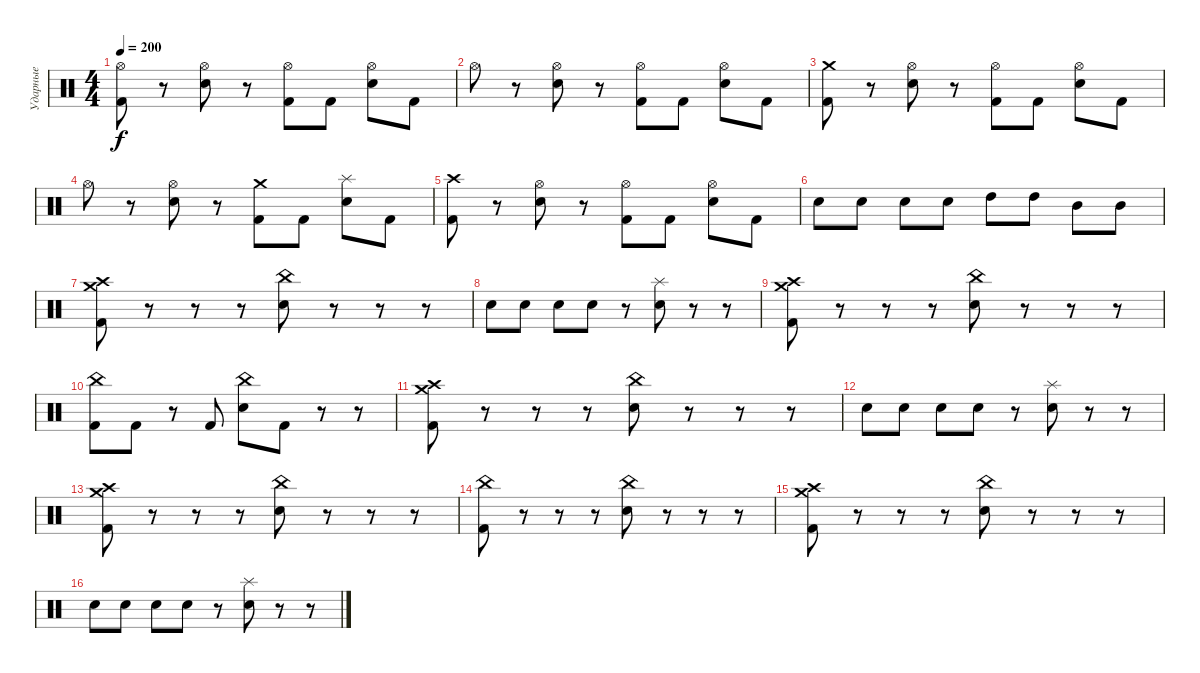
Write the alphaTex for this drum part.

\track ("Ударные" "Ударные") {instrument percussion}
\staff {score}
\articulation defaults
\ts (4 4)
\tempo 200
\clef neutral
\ks c
("Kick (hit) 2" "Hi-Hat (open)").8{dy f} r.8 ("Electric Snare (hit)" "Hi-Hat (open)").8 r.8 ("Kick (hit) 2" "Hi-Hat (open)").8 "Kick (hit) 2".8 ("Electric Snare (hit)" "Hi-Hat (open)").8 "Kick (hit) 2".8 |
"Hi-Hat (open)".8 r.8 ("Electric Snare (hit)" "Hi-Hat (open)").8 r.8 ("Kick (hit) 2" "Hi-Hat (open)").8 "Kick (hit) 2".8 ("Electric Snare (hit)" "Hi-Hat (open)").8 "Kick (hit) 2".8 |
("Kick (hit) 2" "Crash medium (hit)").8 r.8 ("Electric Snare (hit)" "Hi-Hat (open)").8 r.8 ("Kick (hit) 2" "Hi-Hat (open)").8 "Kick (hit) 2".8 ("Electric Snare (hit)" "Hi-Hat (open)").8 "Kick (hit) 2".8 |
"Hi-Hat (open)".8 r.8 ("Electric Snare (hit)" "Hi-Hat (open)").8 r.8 ("Kick (hit) 2" "Crash medium (hit)").8 "Kick (hit) 2".8 ("Electric Snare (hit)" "Splash (hit)").8 "Kick (hit) 2".8 |
("Kick (hit) 2" "Crash high (hit)").8 r.8 ("Electric Snare (hit)" "Hi-Hat (open)").8 r.8 ("Kick (hit) 2" "Hi-Hat (open)").8 "Kick (hit) 2".8 ("Electric Snare (hit)" "Hi-Hat (open)").8 "Kick (hit) 2".8 |
"Electric Snare (hit)".8 "Electric Snare (hit)".8 "Electric Snare (hit)".8 "Electric Snare (hit)".8 "High Tom (hit)".8 "High Tom (hit)".8 "Mid Tom (hit)".8 "Mid Tom (hit)".8 |
("Kick (hit) 2" "Crash high (hit)" "Crash medium (hit)").8 r.8 r.8 r.8 ("Electric Snare (hit)" "China (hit)").8 r.8 r.8 r.8 |
"Electric Snare (hit)".8 "Electric Snare (hit)".8 "Electric Snare (hit)".8 "Electric Snare (hit)".8 r.8 ("Electric Snare (hit)" "Splash (hit)").8 r.8 r.8 |
("Kick (hit) 2" "Crash high (hit)" "Crash medium (hit)").8 r.8 r.8 r.8 ("Electric Snare (hit)" "China (hit)").8 r.8 r.8 r.8 |
("Kick (hit) 2" "China (hit)").8 "Kick (hit) 2".8 r.8 "Kick (hit) 2".8 ("Electric Snare (hit)" "China (hit)").8 "Kick (hit) 2".8 r.8 r.8 |
("Kick (hit) 2" "Crash high (hit)" "Crash medium (hit)").8 r.8 r.8 r.8 ("Electric Snare (hit)" "China (hit)").8 r.8 r.8 r.8 |
"Electric Snare (hit)".8 "Electric Snare (hit)".8 "Electric Snare (hit)".8 "Electric Snare (hit)".8 r.8 ("Electric Snare (hit)" "Splash (hit)").8 r.8 r.8 |
("Kick (hit) 2" "Crash high (hit)" "Crash medium (hit)").8 r.8 r.8 r.8 ("Electric Snare (hit)" "China (hit)").8 r.8 r.8 r.8 |
("Kick (hit) 2" "China (hit)").8 r.8 r.8 r.8 ("Electric Snare (hit)" "China (hit)").8 r.8 r.8 r.8 |
("Kick (hit) 2" "Crash high (hit)" "Crash medium (hit)").8 r.8 r.8 r.8 ("Electric Snare (hit)" "China (hit)").8 r.8 r.8 r.8 |
"Electric Snare (hit)".8 "Electric Snare (hit)".8 "Electric Snare (hit)".8 "Electric Snare (hit)".8 r.8 ("Electric Snare (hit)" "Splash (hit)").8 r.8 r.8
